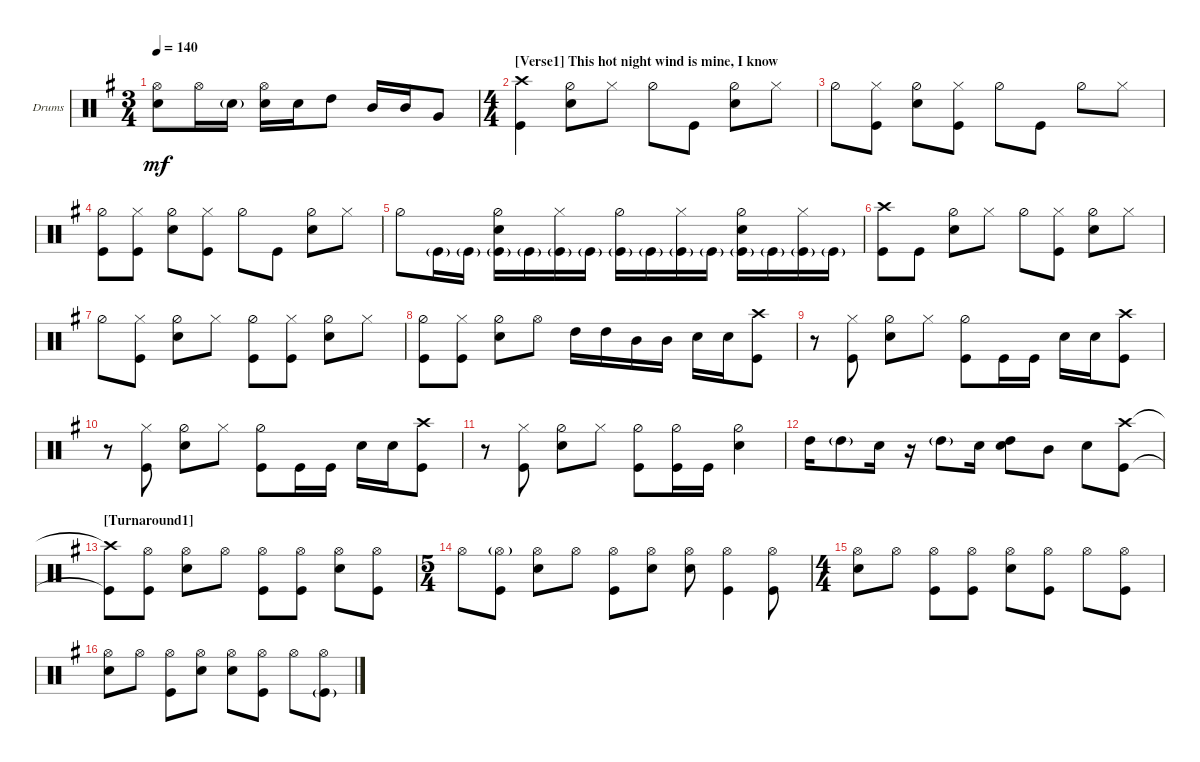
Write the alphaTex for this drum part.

\defaultSystemsLayout 4
\bracketExtendMode groupsimilarinstruments
\firstSystemTrackNameOrientation horizontal
\otherSystemsTrackNameOrientation horizontal
\track ("Drumkit" "Drums") {instrument percussion}
\staff {score}
\articulation defaults
\ts (3 4)
\tempo 140
\clef neutral
\ks g
("Hi-Hat (open)" "Snare (hit) 2").8{dy mf} "Hi-Hat (open)".16 "Snare (hit) 2"{g}.16 ("Snare (hit) 2" "Hi-Hat (open)").16 "Snare (hit) 2".16 "High Tom (hit)".8 "Mid Tom (hit)".16 "Mid Tom (hit)".16 "Very Low Tom (hit)".8 |
\ts (4 4)
\section ("" "[Verse1] This hot night wind is mine, I know")
("Crash high (hit)" "Kick (hit)").4 ("Hi-Hat (half)" "Snare (hit) 2").8 "Hi-Hat (closed)".8 "Hi-Hat (half)".8 "Kick (hit)".8 ("Hi-Hat (half)" "Snare (hit) 2").8 "Hi-Hat (closed)".8 |
"Hi-Hat (half)".8 ("Hi-Hat (closed)" "Kick (hit)").8 ("Hi-Hat (half)" "Snare (hit) 2").8 ("Hi-Hat (closed)" "Kick (hit)").8 "Hi-Hat (half)".8 "Kick (hit)".8 "Hi-Hat (half)".8 "Hi-Hat (closed)".8 |
("Hi-Hat (half)" "Kick (hit)").8 ("Hi-Hat (closed)" "Kick (hit)").8 ("Hi-Hat (half)" "Snare (hit) 2").8 ("Hi-Hat (closed)" "Kick (hit)").8 "Hi-Hat (half)".8 "Kick (hit)".8 ("Hi-Hat (half)" "Snare (hit) 2").8 "Hi-Hat (closed)".8 |
"Hi-Hat (half)".8 "Kick (hit)"{g}.16 "Kick (hit)"{g}.16 ("Kick (hit)"{g} "Hi-Hat (half)" "Snare (hit) 2").16 "Kick (hit)"{g}.16 ("Kick (hit)"{g} "Hi-Hat (closed)").16 "Kick (hit)"{g}.16 ("Kick (hit)"{g} "Hi-Hat (half)").16 "Kick (hit)"{g}.16 ("Kick (hit)"{g} "Hi-Hat (closed)").16 "Kick (hit)"{g}.16 ("Kick (hit)"{g} "Hi-Hat (half)" "Snare (hit) 2").16 "Kick (hit)"{g}.16 ("Kick (hit)"{g} "Hi-Hat (closed)").16 "Kick (hit)"{g}.16 |
("Crash high (hit)" "Kick (hit)").8 "Kick (hit)".8 ("Hi-Hat (half)" "Snare (hit) 2").8 "Hi-Hat (closed)".8 "Hi-Hat (half)".8 ("Kick (hit)" "Hi-Hat (closed)").8 ("Hi-Hat (half)" "Snare (hit) 2").8 "Hi-Hat (closed)".8 |
"Hi-Hat (half)".8 ("Hi-Hat (closed)" "Kick (hit)").8 ("Hi-Hat (half)" "Snare (hit) 2").8 "Hi-Hat (closed)".8 ("Hi-Hat (half)" "Kick (hit)").8 ("Kick (hit)" "Hi-Hat (closed)").8 ("Hi-Hat (half)" "Snare (hit) 2").8 "Hi-Hat (closed)".8 |
("Hi-Hat (half)" "Kick (hit)").8 ("Hi-Hat (closed)" "Kick (hit)").8 ("Hi-Hat (half)" "Snare (hit) 2").8 "Hi-Hat (open)".8 "High Tom (hit)".16 "High Tom (hit)".16 "Mid Tom (hit)".16 "Mid Tom (hit)".16 "Snare (hit) 2".16 "Snare (hit) 2".16 ("Kick (hit)" "Crash high (hit)").8 |
r.8 ("Hi-Hat (closed)" "Kick (hit)").8 ("Hi-Hat (half)" "Snare (hit) 2").8 "Hi-Hat (closed)".8 ("Hi-Hat (half)" "Kick (hit)").8 "Kick (hit)".16 "Kick (hit)".16 "Snare (hit) 2".16 "Snare (hit) 2".16 ("Kick (hit)" "Crash high (hit)").8 |
r.8 ("Hi-Hat (closed)" "Kick (hit)").8 ("Hi-Hat (half)" "Snare (hit) 2").8 "Hi-Hat (closed)".8 ("Hi-Hat (half)" "Kick (hit)").8 "Kick (hit)".16 "Kick (hit)".16 "Snare (hit) 2".16 "Snare (hit) 2".16 ("Kick (hit)" "Crash high (hit)").8 |
r.8 ("Hi-Hat (closed)" "Kick (hit)").8 ("Hi-Hat (half)" "Snare (hit) 2").8 "Hi-Hat (closed)".8 ("Hi-Hat (half)" "Kick (hit)").8 ("Kick (hit)" "Hi-Hat (half)").16 "Kick (hit)".16 ("Snare (hit) 2" "Hi-Hat (half)").4 |
"High Tom (hit)".16 "High Tom (hit)"{g}.8 "Snare (hit) 2".16 r.16 "High Tom (hit)"{g}.8 "Snare (hit) 2".16 ("Snare (hit) 2" "High Tom (hit)").8 "Mid Tom (hit)".8 "Snare (hit) 2".8 ("Kick (hit)" "Crash high (hit)").8 |
\section ("" "[Turnaround1]")
("Kick (hit)"{t} "Crash high (hit)"{t}).8 ("Kick (hit)" "Hi-Hat (open)").8 ("Hi-Hat (open)" "Snare (hit) 2").8 "Hi-Hat (open)".8 ("Hi-Hat (open)" "Kick (hit)").8 ("Hi-Hat (open)" "Kick (hit)").8 ("Hi-Hat (open)" "Snare (hit) 2").8 ("Hi-Hat (open)" "Kick (hit)").8 |
\ts (5 4)
"Hi-Hat (open)".8 ("Kick (hit)" "Hi-Hat (open)"{g}).8 ("Hi-Hat (open)" "Snare (hit) 2").8 "Hi-Hat (open)".8 ("Hi-Hat (open)" "Kick (hit)").8 ("Snare (hit) 2" "Hi-Hat (open)").8 ("Hi-Hat (open)" "Snare (hit) 2").8 ("Hi-Hat (open)" "Kick (hit)").4 ("Kick (hit)" "Hi-Hat (open)").8 |
\ts (4 4)
("Hi-Hat (open)" "Snare (hit) 2").8 "Hi-Hat (open)".8 ("Hi-Hat (open)" "Kick (hit)").8 ("Hi-Hat (open)" "Kick (hit)").8 ("Hi-Hat (open)" "Snare (hit) 2").8 ("Hi-Hat (open)" "Kick (hit)").8 "Hi-Hat (open)".8 ("Hi-Hat (open)" "Kick (hit)").8 |
("Hi-Hat (open)" "Snare (hit) 2").8 "Hi-Hat (open)".8 ("Hi-Hat (open)" "Kick (hit)").8 ("Hi-Hat (open)" "Snare (hit) 2").8 ("Hi-Hat (open)" "Snare (hit) 2").8 ("Hi-Hat (open)" "Kick (hit)").8 "Hi-Hat (open)".8 ("Hi-Hat (open)" "Kick (hit)"{g}).8
